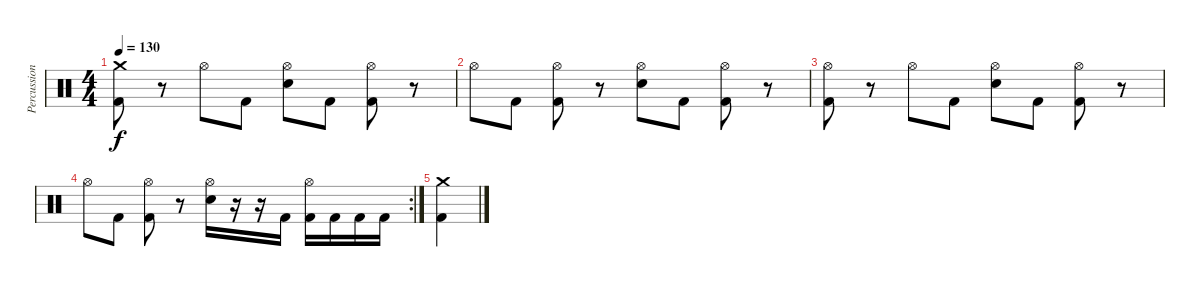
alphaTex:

\track ("Percussion" "Percussion") {instrument percussion}
\staff {score}
\articulation defaults
\ts (4 4)
\tempo 130
\clef neutral
\ks c
("Crash medium (hit)" "Kick (hit) 2").8{dy f} r.8 "Hi-Hat (open)".8 "Kick (hit) 2".8 ("Hi-Hat (open)" "Electric Snare (hit)").8 "Kick (hit) 2".8 ("Hi-Hat (open)" "Kick (hit) 2").8 r.8 |
"Hi-Hat (open)".8 "Kick (hit) 2".8 ("Hi-Hat (open)" "Kick (hit) 2").8 r.8 ("Hi-Hat (open)" "Electric Snare (hit)").8 "Kick (hit) 2".8 ("Hi-Hat (open)" "Kick (hit) 2").8 r.8 |
("Hi-Hat (open)" "Kick (hit) 2").8 r.8 "Hi-Hat (open)".8 "Kick (hit) 2".8 ("Hi-Hat (open)" "Electric Snare (hit)").8 "Kick (hit) 2".8 ("Hi-Hat (open)" "Kick (hit) 2").8 r.8 |
\rc 2 "Hi-Hat (open)".8 "Kick (hit) 2".8
("Hi-Hat (open)" "Kick (hit) 2").8 r.8 ("Hi-Hat (open)" "Electric Snare (hit)").16 r.16 r.16 "Kick (hit) 2".16 ("Hi-Hat (open)" "Kick (hit) 2").16 "Kick (hit) 2".16 "Kick (hit) 2".16 "Kick (hit) 2".16 |
("Crash medium (hit)" "Kick (hit) 2").4
